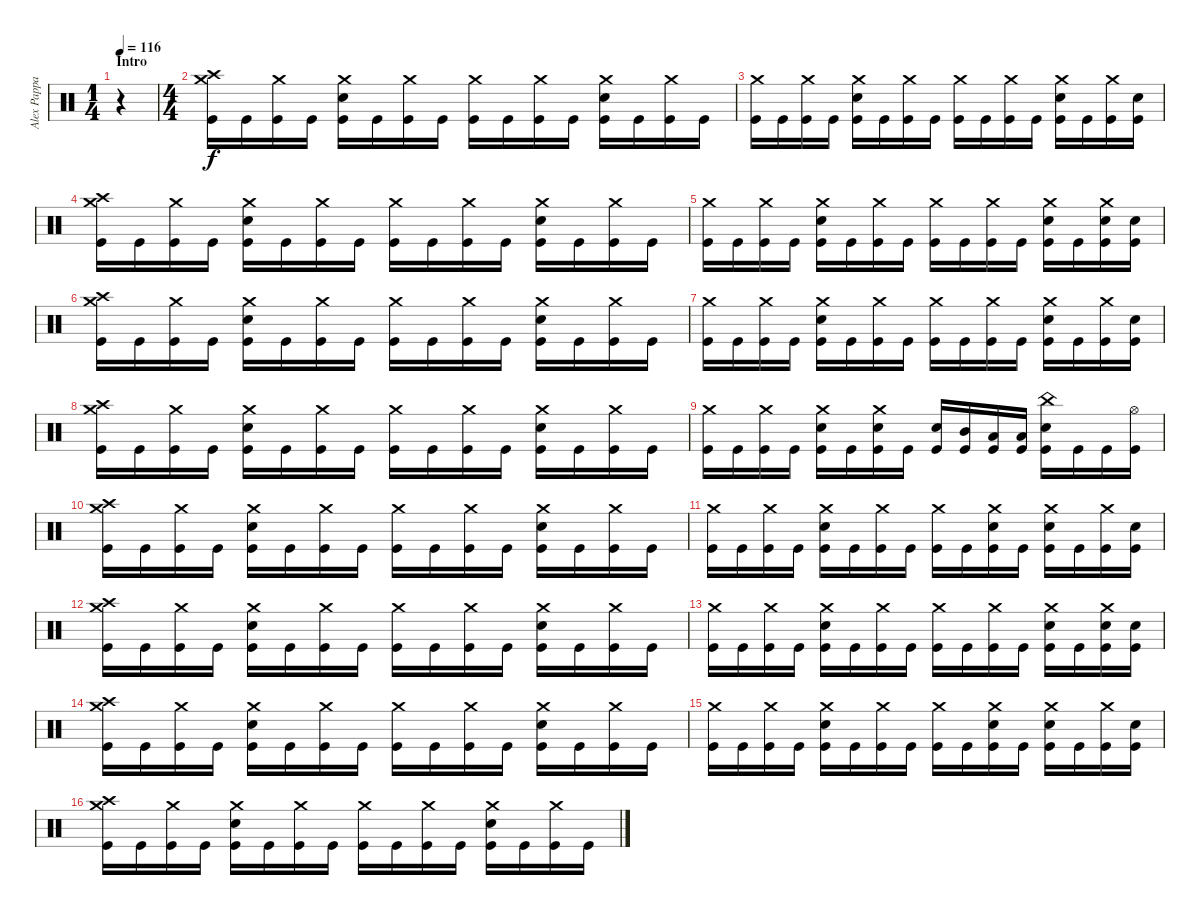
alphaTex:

\track ("Alex Pappas" "Alex Pappa") {instrument percussion}
\staff {score}
\articulation defaults
\ts (1 4)
\section ("" "Intro")
\tempo 116
\clef neutral
\ks c
r.4{dy f} |
\ts (4 4)
("Crash high (hit)" "Crash medium (hit)" "Kick (hit)").16 "Kick (hit)".16 ("Crash medium (hit)" "Kick (hit)").16 "Kick (hit)".16 ("Crash medium (hit)" "Electric Snare (hit)" "Kick (hit)").16 "Kick (hit)".16 ("Crash medium (hit)" "Kick (hit)").16 "Kick (hit)".16 ("Crash medium (hit)" "Kick (hit)").16 "Kick (hit)".16 ("Crash medium (hit)" "Kick (hit)").16 "Kick (hit)".16 ("Crash medium (hit)" "Electric Snare (hit)" "Kick (hit)").16 "Kick (hit)".16 ("Crash medium (hit)" "Kick (hit)").16 "Kick (hit)".16 |
("Crash medium (hit)" "Kick (hit)").16 "Kick (hit)".16 ("Crash medium (hit)" "Kick (hit)").16 "Kick (hit)".16 ("Crash medium (hit)" "Electric Snare (hit)" "Kick (hit)").16 "Kick (hit)".16 ("Crash medium (hit)" "Kick (hit)").16 "Kick (hit)".16 ("Crash medium (hit)" "Kick (hit)").16 "Kick (hit)".16 ("Crash medium (hit)" "Kick (hit)").16 "Kick (hit)".16 ("Crash medium (hit)" "Electric Snare (hit)" "Kick (hit)").16 "Kick (hit)".16 ("Crash medium (hit)" "Kick (hit)").16 ("Electric Snare (hit)" "Kick (hit)").16 |
("Crash high (hit)" "Crash medium (hit)" "Kick (hit)").16 "Kick (hit)".16 ("Crash medium (hit)" "Kick (hit)").16 "Kick (hit)".16 ("Crash medium (hit)" "Electric Snare (hit)" "Kick (hit)").16 "Kick (hit)".16 ("Crash medium (hit)" "Kick (hit)").16 "Kick (hit)".16 ("Crash medium (hit)" "Kick (hit)").16 "Kick (hit)".16 ("Crash medium (hit)" "Kick (hit)").16 "Kick (hit)".16 ("Crash medium (hit)" "Electric Snare (hit)" "Kick (hit)").16 "Kick (hit)".16 ("Crash medium (hit)" "Kick (hit)").16 "Kick (hit)".16 |
("Crash medium (hit)" "Kick (hit)").16 "Kick (hit)".16 ("Crash medium (hit)" "Kick (hit)").16 "Kick (hit)".16 ("Crash medium (hit)" "Electric Snare (hit)" "Kick (hit)").16 "Kick (hit)".16 ("Crash medium (hit)" "Kick (hit)").16 "Kick (hit)".16 ("Crash medium (hit)" "Kick (hit)").16 "Kick (hit)".16 ("Crash medium (hit)" "Kick (hit)").16 "Kick (hit)".16 ("Crash medium (hit)" "Electric Snare (hit)" "Kick (hit)").16 "Kick (hit)".16 ("Crash medium (hit)" "Electric Snare (hit)" "Kick (hit)").16 ("Electric Snare (hit)" "Kick (hit)").16 |
("Crash high (hit)" "Crash medium (hit)" "Kick (hit)").16 "Kick (hit)".16 ("Crash medium (hit)" "Kick (hit)").16 "Kick (hit)".16 ("Crash medium (hit)" "Electric Snare (hit)" "Kick (hit)").16 "Kick (hit)".16 ("Crash medium (hit)" "Kick (hit)").16 "Kick (hit)".16 ("Crash medium (hit)" "Kick (hit)").16 "Kick (hit)".16 ("Crash medium (hit)" "Kick (hit)").16 "Kick (hit)".16 ("Crash medium (hit)" "Electric Snare (hit)" "Kick (hit)").16 "Kick (hit)".16 ("Crash medium (hit)" "Kick (hit)").16 "Kick (hit)".16 |
("Crash medium (hit)" "Kick (hit)").16 "Kick (hit)".16 ("Crash medium (hit)" "Kick (hit)").16 "Kick (hit)".16 ("Crash medium (hit)" "Electric Snare (hit)" "Kick (hit)").16 "Kick (hit)".16 ("Crash medium (hit)" "Kick (hit)").16 "Kick (hit)".16 ("Crash medium (hit)" "Kick (hit)").16 "Kick (hit)".16 ("Crash medium (hit)" "Kick (hit)").16 "Kick (hit)".16 ("Crash medium (hit)" "Electric Snare (hit)" "Kick (hit)").16 "Kick (hit)".16 ("Crash medium (hit)" "Kick (hit)").16 ("Electric Snare (hit)" "Kick (hit)").16 |
("Crash high (hit)" "Crash medium (hit)" "Kick (hit)").16 "Kick (hit)".16 ("Crash medium (hit)" "Kick (hit)").16 "Kick (hit)".16 ("Crash medium (hit)" "Electric Snare (hit)" "Kick (hit)").16 "Kick (hit)".16 ("Crash medium (hit)" "Kick (hit)").16 "Kick (hit)".16 ("Crash medium (hit)" "Kick (hit)").16 "Kick (hit)".16 ("Crash medium (hit)" "Kick (hit)").16 "Kick (hit)".16 ("Crash medium (hit)" "Electric Snare (hit)" "Kick (hit)").16 "Kick (hit)".16 ("Crash medium (hit)" "Kick (hit)").16 "Kick (hit)".16 |
("Crash medium (hit)" "Kick (hit)").16 "Kick (hit)".16 ("Crash medium (hit)" "Kick (hit)").16 "Kick (hit)".16 ("Crash medium (hit)" "Electric Snare (hit)" "Kick (hit)").16 "Kick (hit)".16 ("Crash medium (hit)" "Electric Snare (hit)" "Kick (hit)").16 "Kick (hit)".16 ("Electric Snare (hit)" "Kick (hit)").16 ("Mid Tom (hit)" "Kick (hit)").16 ("Low Tom (hit)" "Kick (hit)").16 ("Low Tom (hit)" "Kick (hit)").16 ("China (hit)" "Electric Snare (hit)" "Kick (hit)").16 "Kick (hit)".16 "Kick (hit)".16 ("Hi-Hat (open)" "Kick (hit)").16 |
("Crash high (hit)" "Crash medium (hit)" "Kick (hit)").16 "Kick (hit)".16 ("Crash medium (hit)" "Kick (hit)").16 "Kick (hit)".16 ("Crash medium (hit)" "Electric Snare (hit)" "Kick (hit)").16 "Kick (hit)".16 ("Crash medium (hit)" "Kick (hit)").16 "Kick (hit)".16 ("Crash medium (hit)" "Kick (hit)").16 "Kick (hit)".16 ("Crash medium (hit)" "Kick (hit)").16 "Kick (hit)".16 ("Crash medium (hit)" "Electric Snare (hit)" "Kick (hit)").16 "Kick (hit)".16 ("Crash medium (hit)" "Kick (hit)").16 "Kick (hit)".16 |
("Crash medium (hit)" "Kick (hit)").16 "Kick (hit)".16 ("Crash medium (hit)" "Kick (hit)").16 "Kick (hit)".16 ("Crash medium (hit)" "Electric Snare (hit)" "Kick (hit)").16 "Kick (hit)".16 ("Crash medium (hit)" "Kick (hit)").16 "Kick (hit)".16 ("Crash medium (hit)" "Kick (hit)").16 "Kick (hit)".16 ("Crash medium (hit)" "Electric Snare (hit)" "Kick (hit)").16 "Kick (hit)".16 ("Crash medium (hit)" "Electric Snare (hit)" "Kick (hit)").16 "Kick (hit)".16 ("Crash medium (hit)" "Kick (hit)").16 ("Electric Snare (hit)" "Kick (hit)").16 |
("Crash high (hit)" "Crash medium (hit)" "Kick (hit)").16 "Kick (hit)".16 ("Crash medium (hit)" "Kick (hit)").16 "Kick (hit)".16 ("Crash medium (hit)" "Electric Snare (hit)" "Kick (hit)").16 "Kick (hit)".16 ("Crash medium (hit)" "Kick (hit)").16 "Kick (hit)".16 ("Crash medium (hit)" "Kick (hit)").16 "Kick (hit)".16 ("Crash medium (hit)" "Kick (hit)").16 "Kick (hit)".16 ("Crash medium (hit)" "Electric Snare (hit)" "Kick (hit)").16 "Kick (hit)".16 ("Crash medium (hit)" "Kick (hit)").16 "Kick (hit)".16 |
("Crash medium (hit)" "Kick (hit)").16 "Kick (hit)".16 ("Crash medium (hit)" "Kick (hit)").16 "Kick (hit)".16 ("Crash medium (hit)" "Electric Snare (hit)" "Kick (hit)").16 "Kick (hit)".16 ("Crash medium (hit)" "Kick (hit)").16 "Kick (hit)".16 ("Crash medium (hit)" "Kick (hit)").16 "Kick (hit)".16 ("Crash medium (hit)" "Kick (hit)").16 "Kick (hit)".16 ("Crash medium (hit)" "Electric Snare (hit)" "Kick (hit)").16 "Kick (hit)".16 ("Crash medium (hit)" "Electric Snare (hit)" "Kick (hit)").16 ("Electric Snare (hit)" "Kick (hit)").16 |
("Crash high (hit)" "Crash medium (hit)" "Kick (hit)").16 "Kick (hit)".16 ("Crash medium (hit)" "Kick (hit)").16 "Kick (hit)".16 ("Crash medium (hit)" "Electric Snare (hit)" "Kick (hit)").16 "Kick (hit)".16 ("Crash medium (hit)" "Kick (hit)").16 "Kick (hit)".16 ("Crash medium (hit)" "Kick (hit)").16 "Kick (hit)".16 ("Crash medium (hit)" "Kick (hit)").16 "Kick (hit)".16 ("Crash medium (hit)" "Electric Snare (hit)" "Kick (hit)").16 "Kick (hit)".16 ("Crash medium (hit)" "Kick (hit)").16 "Kick (hit)".16 |
("Crash medium (hit)" "Kick (hit)").16 "Kick (hit)".16 ("Crash medium (hit)" "Kick (hit)").16 "Kick (hit)".16 ("Crash medium (hit)" "Electric Snare (hit)" "Kick (hit)").16 "Kick (hit)".16 ("Crash medium (hit)" "Kick (hit)").16 "Kick (hit)".16 ("Crash medium (hit)" "Kick (hit)").16 "Kick (hit)".16 ("Crash medium (hit)" "Electric Snare (hit)" "Kick (hit)").16 "Kick (hit)".16 ("Crash medium (hit)" "Electric Snare (hit)" "Kick (hit)").16 "Kick (hit)".16 ("Crash medium (hit)" "Kick (hit)").16 ("Electric Snare (hit)" "Kick (hit)").16 |
("Crash high (hit)" "Crash medium (hit)" "Kick (hit)").16 "Kick (hit)".16 ("Crash medium (hit)" "Kick (hit)").16 "Kick (hit)".16 ("Crash medium (hit)" "Electric Snare (hit)" "Kick (hit)").16 "Kick (hit)".16 ("Crash medium (hit)" "Kick (hit)").16 "Kick (hit)".16 ("Crash medium (hit)" "Kick (hit)").16 "Kick (hit)".16 ("Crash medium (hit)" "Kick (hit)").16 "Kick (hit)".16 ("Crash medium (hit)" "Electric Snare (hit)" "Kick (hit)").16 "Kick (hit)".16 ("Crash medium (hit)" "Kick (hit)").16 "Kick (hit)".16
